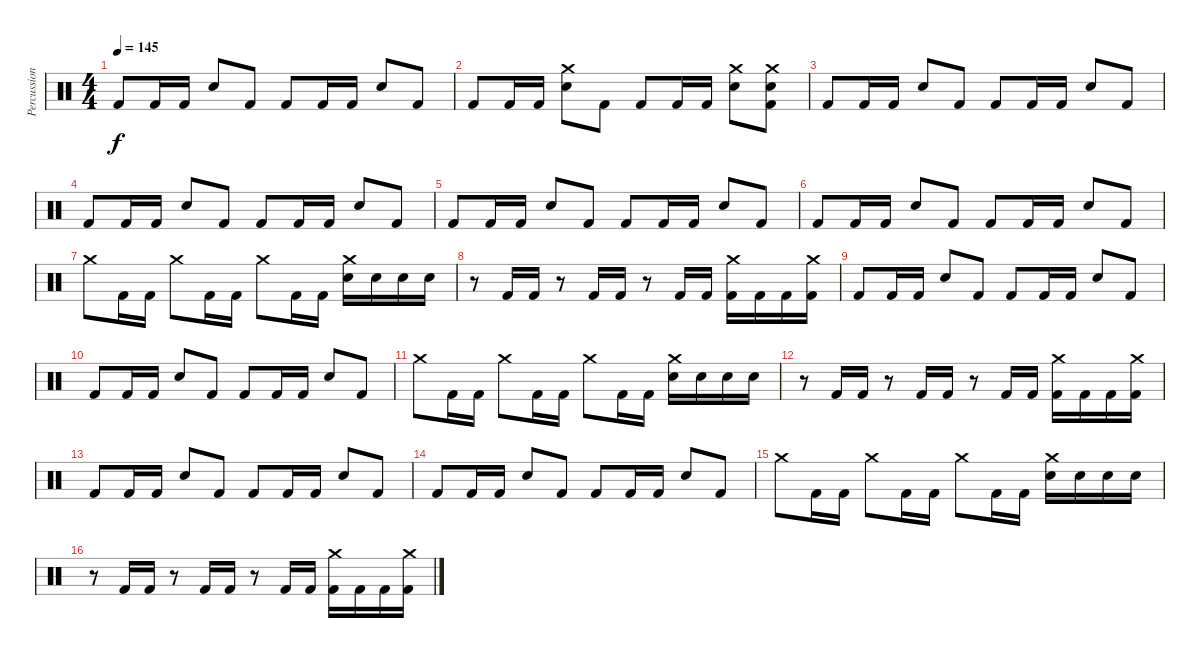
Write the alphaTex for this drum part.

\track ("Percussion" "Percussion") {instrument percussion}
\staff {score}
\articulation defaults
\ts (4 4)
\tempo 145
\clef neutral
\ks c "Kick (hit) 2".8{dy f} "Kick (hit) 2".16 "Kick (hit) 2".16 "Snare (hit) 2".8 "Kick (hit) 2".8 "Kick (hit) 2".8 "Kick (hit) 2".16 "Kick (hit) 2".16 "Snare (hit) 2".8 "Kick (hit) 2".8
|
"Kick (hit) 2".8 "Kick (hit) 2".16 "Kick (hit) 2".16 ("Crash medium (hit)" "Snare (hit) 2").8 "Kick (hit) 2".8 "Kick (hit) 2".8 "Kick (hit) 2".16 "Kick (hit) 2".16 ("Crash medium (hit)" "Snare (hit) 2").8 ("Crash medium (hit)" "Snare (hit) 2" "Kick (hit) 2").8 |
"Kick (hit) 2".8 "Kick (hit) 2".16 "Kick (hit) 2".16 "Snare (hit) 2".8 "Kick (hit) 2".8 "Kick (hit) 2".8 "Kick (hit) 2".16 "Kick (hit) 2".16 "Snare (hit) 2".8 "Kick (hit) 2".8 |
"Kick (hit) 2".8 "Kick (hit) 2".16 "Kick (hit) 2".16 "Snare (hit) 2".8 "Kick (hit) 2".8 "Kick (hit) 2".8 "Kick (hit) 2".16 "Kick (hit) 2".16 "Snare (hit) 2".8 "Kick (hit) 2".8 |
"Kick (hit) 2".8 "Kick (hit) 2".16 "Kick (hit) 2".16 "Snare (hit) 2".8 "Kick (hit) 2".8 "Kick (hit) 2".8 "Kick (hit) 2".16 "Kick (hit) 2".16 "Snare (hit) 2".8 "Kick (hit) 2".8 |
"Kick (hit) 2".8 "Kick (hit) 2".16 "Kick (hit) 2".16 "Snare (hit) 2".8 "Kick (hit) 2".8 "Kick (hit) 2".8 "Kick (hit) 2".16 "Kick (hit) 2".16 "Snare (hit) 2".8 "Kick (hit) 2".8 |
"Crash medium (hit)".8 "Kick (hit) 2".16 "Kick (hit) 2".16 "Crash medium (hit)".8 "Kick (hit) 2".16 "Kick (hit) 2".16 "Crash medium (hit)".8 "Kick (hit) 2".16 "Kick (hit) 2".16 ("Crash medium (hit)" "Snare (hit) 2").16 "Snare (hit) 2".16 "Snare (hit) 2".16 "Snare (hit) 2".16 |
r.8 "Kick (hit) 2".16 "Kick (hit) 2".16 r.8 "Kick (hit) 2".16 "Kick (hit) 2".16 r.8 "Kick (hit) 2".16 "Kick (hit) 2".16 ("Crash medium (hit)" "Kick (hit) 2").16 "Kick (hit) 2".16 "Kick (hit) 2".16 ("Crash medium (hit)" "Kick (hit) 2").16 |
"Kick (hit) 2".8 "Kick (hit) 2".16 "Kick (hit) 2".16 "Snare (hit) 2".8 "Kick (hit) 2".8 "Kick (hit) 2".8 "Kick (hit) 2".16 "Kick (hit) 2".16 "Snare (hit) 2".8 "Kick (hit) 2".8 |
"Kick (hit) 2".8 "Kick (hit) 2".16 "Kick (hit) 2".16 "Snare (hit) 2".8 "Kick (hit) 2".8 "Kick (hit) 2".8 "Kick (hit) 2".16 "Kick (hit) 2".16 "Snare (hit) 2".8 "Kick (hit) 2".8 |
"Crash medium (hit)".8 "Kick (hit) 2".16 "Kick (hit) 2".16 "Crash medium (hit)".8 "Kick (hit) 2".16 "Kick (hit) 2".16 "Crash medium (hit)".8 "Kick (hit) 2".16 "Kick (hit) 2".16 ("Crash medium (hit)" "Snare (hit) 2").16 "Snare (hit) 2".16 "Snare (hit) 2".16 "Snare (hit) 2".16 |
r.8 "Kick (hit) 2".16 "Kick (hit) 2".16 r.8 "Kick (hit) 2".16 "Kick (hit) 2".16 r.8 "Kick (hit) 2".16 "Kick (hit) 2".16 ("Crash medium (hit)" "Kick (hit) 2").16 "Kick (hit) 2".16 "Kick (hit) 2".16 ("Crash medium (hit)" "Kick (hit) 2").16 |
"Kick (hit) 2".8 "Kick (hit) 2".16 "Kick (hit) 2".16 "Snare (hit) 2".8 "Kick (hit) 2".8 "Kick (hit) 2".8 "Kick (hit) 2".16 "Kick (hit) 2".16 "Snare (hit) 2".8 "Kick (hit) 2".8 |
"Kick (hit) 2".8 "Kick (hit) 2".16 "Kick (hit) 2".16 "Snare (hit) 2".8 "Kick (hit) 2".8 "Kick (hit) 2".8 "Kick (hit) 2".16 "Kick (hit) 2".16 "Snare (hit) 2".8 "Kick (hit) 2".8 |
"Crash medium (hit)".8 "Kick (hit) 2".16 "Kick (hit) 2".16 "Crash medium (hit)".8 "Kick (hit) 2".16 "Kick (hit) 2".16 "Crash medium (hit)".8 "Kick (hit) 2".16 "Kick (hit) 2".16 ("Crash medium (hit)" "Snare (hit) 2").16 "Snare (hit) 2".16 "Snare (hit) 2".16 "Snare (hit) 2".16 |
r.8 "Kick (hit) 2".16 "Kick (hit) 2".16 r.8 "Kick (hit) 2".16 "Kick (hit) 2".16 r.8 "Kick (hit) 2".16 "Kick (hit) 2".16 ("Crash medium (hit)" "Kick (hit) 2").16 "Kick (hit) 2".16 "Kick (hit) 2".16 ("Crash medium (hit)" "Kick (hit) 2").16
